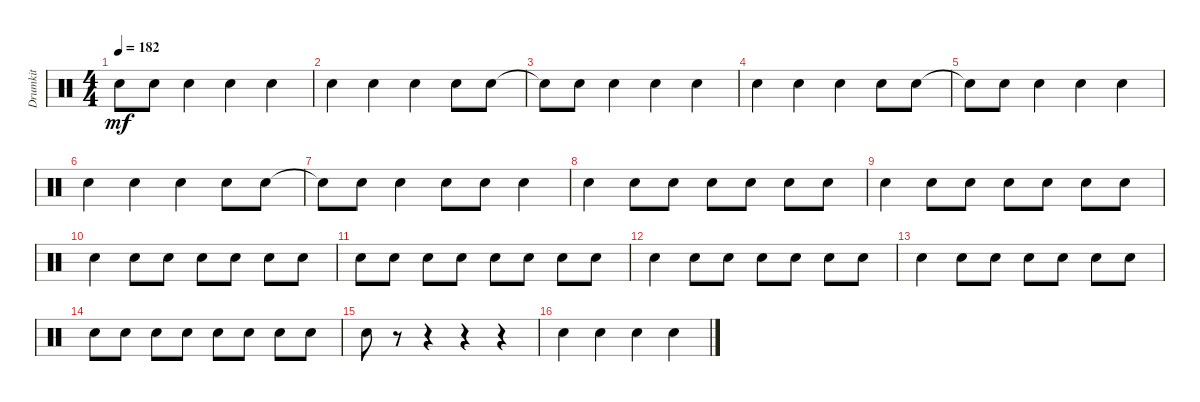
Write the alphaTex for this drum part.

\track ("Drumkit" "Drumkit") {instrument percussion}
\staff {score}
\articulation defaults
\ts (4 4)
\tempo 182
\clef neutral
\ks c "Snare (hit)"{t}.8{dy mf} "Snare (hit)".8 "Snare (hit)".4 "Snare (hit)".4 "Snare (hit)".4
|
"Snare (hit)".4 "Snare (hit)".4 "Snare (hit)".4 "Snare (hit)".8 "Snare (hit)".8 |
"Snare (hit)"{t}.8 "Snare (hit)".8 "Snare (hit)".4 "Snare (hit)".4 "Snare (hit)".4 |
"Snare (hit)".4 "Snare (hit)".4 "Snare (hit)".4 "Snare (hit)".8 "Snare (hit)".8 |
"Snare (hit)"{t}.8 "Snare (hit)".8 "Snare (hit)".4 "Snare (hit)".4 "Snare (hit)".4 |
"Snare (hit)".4 "Snare (hit)".4 "Snare (hit)".4 "Snare (hit)".8 "Snare (hit)".8 |
"Snare (hit)"{t}.8 "Snare (hit)".8 "Snare (hit)".4 "Snare (hit)".8 "Snare (hit)".8 "Snare (hit)".4 |
"Snare (hit)".4 "Snare (hit)".8 "Snare (hit)".8 "Snare (hit)".8 "Snare (hit)".8 "Snare (hit)".8 "Snare (hit)".8 |
"Snare (hit)".4 "Snare (hit)".8 "Snare (hit)".8 "Snare (hit)".8 "Snare (hit)".8 "Snare (hit)".8 "Snare (hit)".8 |
"Snare (hit)".4 "Snare (hit)".8 "Snare (hit)".8 "Snare (hit)".8 "Snare (hit)".8 "Snare (hit)".8 "Snare (hit)".8 |
"Snare (hit)".8 "Snare (hit)".8 "Snare (hit)".8 "Snare (hit)".8 "Snare (hit)".8 "Snare (hit)".8 "Snare (hit)".8 "Snare (hit)".8 |
"Snare (hit)".4 "Snare (hit)".8 "Snare (hit)".8 "Snare (hit)".8 "Snare (hit)".8 "Snare (hit)".8 "Snare (hit)".8 |
"Snare (hit)".4 "Snare (hit)".8 "Snare (hit)".8 "Snare (hit)".8 "Snare (hit)".8 "Snare (hit)".8 "Snare (hit)".8 |
"Snare (hit)".8 "Snare (hit)".8 "Snare (hit)".8 "Snare (hit)".8 "Snare (hit)".8 "Snare (hit)".8 "Snare (hit)".8 "Snare (hit)".8 |
"Snare (hit)".8 r.8 r.4 r.4 r.4 |
"Snare (hit)".4 "Snare (hit)".4 "Snare (hit)".4 "Snare (hit)".4
